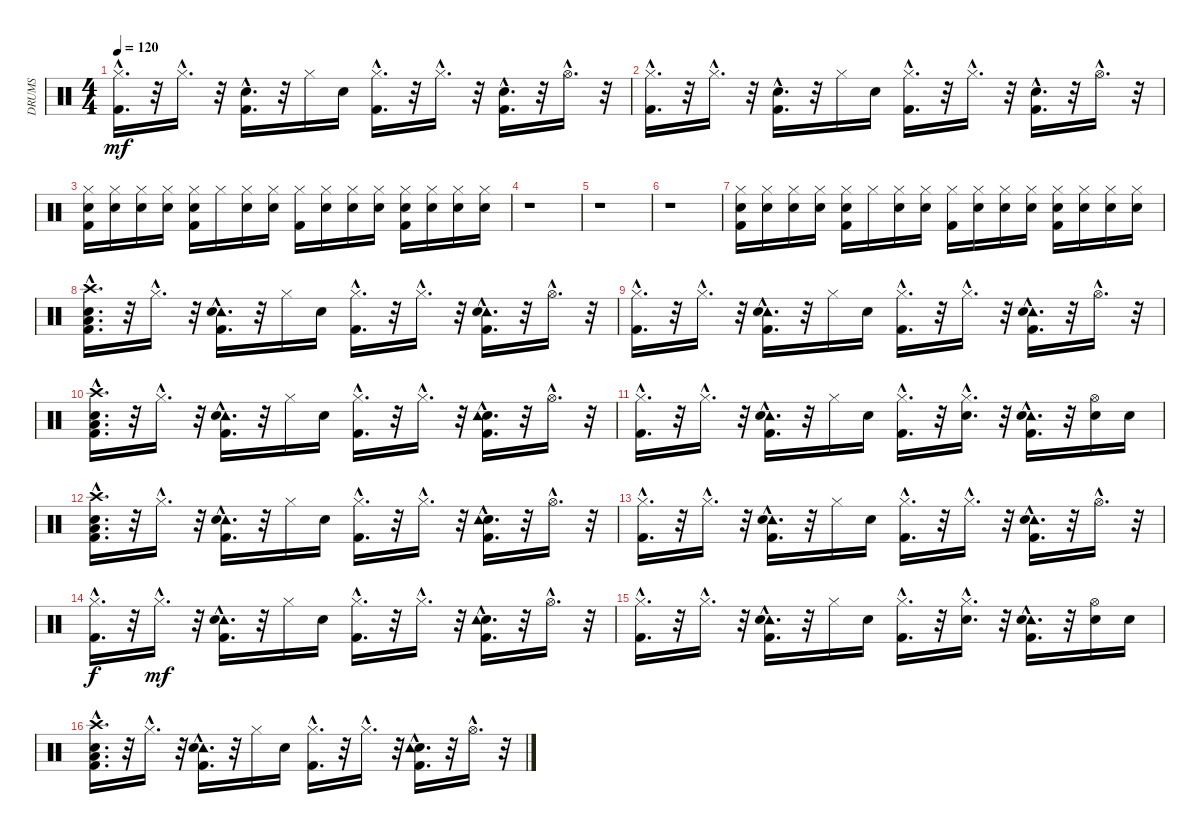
\track ("DRUMS" "DRUMS") {instrument percussion}
\staff {score}
\articulation defaults
\ts (4 4)
\tempo 120
\clef neutral
\ks c
("Hi-Hat (closed)"{hac} "Kick (hit) 2"{hac}).16{d dy mf} r.32 "Hi-Hat (closed)"{hac}.16{d} r.32 ("Electric Snare (hit)"{hac} "Kick (hit) 2"{hac}).16{d} r.32 "Hi-Hat (closed)".16 "Electric Snare (hit)".16 ("Hi-Hat (closed)"{hac} "Kick (hit) 2"{hac}).16{d} r.32 "Hi-Hat (closed)"{hac}.16{d} r.32 ("Electric Snare (hit)"{hac} "Kick (hit) 2"{hac}).16{d} r.32 "Hi-Hat (open)"{hac}.16{d} r.32 |
("Hi-Hat (closed)"{hac} "Kick (hit) 2"{hac}).16{d} r.32 "Hi-Hat (closed)"{hac}.16{d} r.32 ("Electric Snare (hit)"{hac} "Kick (hit) 2"{hac}).16{d} r.32 "Hi-Hat (closed)".16 "Electric Snare (hit)".16 ("Hi-Hat (closed)"{hac} "Kick (hit) 2"{hac}).16{d} r.32 "Hi-Hat (closed)"{hac}.16{d} r.32 ("Electric Snare (hit)"{hac} "Kick (hit) 2"{hac}).16{d} r.32 "Hi-Hat (open)"{hac}.16{d} r.32 |
("Kick (hit) 2" "Hi-Hat (closed)" "Electric Snare (hit)").16 ("Hi-Hat (closed)" "Electric Snare (hit)").16 ("Hi-Hat (closed)" "Electric Snare (hit)").16 ("Hi-Hat (closed)" "Electric Snare (hit)").16 ("Hi-Hat (closed)" "Kick (hit) 2" "Electric Snare (hit)").16 "Hi-Hat (closed)".16 ("Hi-Hat (closed)" "Electric Snare (hit)").16 ("Electric Snare (hit)" "Hi-Hat (closed)").16 ("Hi-Hat (closed)" "Kick (hit) 2").16 ("Hi-Hat (closed)" "Electric Snare (hit)").16 ("Hi-Hat (closed)" "Electric Snare (hit)").16 ("Hi-Hat (closed)" "Electric Snare (hit)").16 ("Hi-Hat (closed)" "Kick (hit) 2" "Electric Snare (hit)").16 ("Hi-Hat (closed)" "Electric Snare (hit)").16 ("Electric Snare (hit)" "Hi-Hat (closed)").16 ("Electric Snare (hit)" "Hi-Hat (closed)").16 |
r.1 |
r.1 |
r.1 |
("Hi-Hat (closed)" "Kick (hit) 2" "Electric Snare (hit)").16 ("Hi-Hat (closed)" "Electric Snare (hit)").16 ("Electric Snare (hit)" "Hi-Hat (closed)").16 ("Hi-Hat (closed)" "Electric Snare (hit)").16 ("Electric Snare (hit)" "Kick (hit) 2" "Hi-Hat (closed)").16 "Hi-Hat (closed)".16 ("Hi-Hat (closed)" "Electric Snare (hit)").16 ("Electric Snare (hit)" "Hi-Hat (closed)").16 ("Kick (hit) 2" "Hi-Hat (closed)").16 ("Electric Snare (hit)" "Hi-Hat (closed)").16 ("Electric Snare (hit)" "Hi-Hat (closed)").16 ("Electric Snare (hit)" "Hi-Hat (closed)").16 ("Electric Snare (hit)" "Kick (hit) 2" "Hi-Hat (closed)").16 ("Electric Snare (hit)" "Hi-Hat (closed)").16 ("Hi-Hat (closed)" "Electric Snare (hit)").16 ("Hi-Hat (closed)" "Electric Snare (hit)").16 |
("Snare (hit) 2"{hac} "Low Floor Tom (hit)"{hac} "Crash high (hit)"{hac} "Kick (hit) 2"{hac}).16{d} r.32 "Hi-Hat (closed)"{hac}.16{d} r.32 ("Tambourine (hit)"{hac} "Kick (hit) 2"{hac} "Electric Snare (hit)"{hac}).16{d} r.32 "Hi-Hat (closed)".16 "Electric Snare (hit)".16 ("Hi-Hat (closed)"{hac} "Kick (hit) 2"{hac}).16{d} r.32 "Hi-Hat (closed)"{hac}.16{d} r.32 ("Tambourine (hit)"{hac} "Kick (hit) 2"{hac} "Electric Snare (hit)"{hac}).16{d} r.32 "Hi-Hat (open)"{hac}.16{d} r.32 |
("Hi-Hat (closed)"{hac} "Kick (hit) 2"{hac}).16{d} r.32 "Hi-Hat (closed)"{hac}.16{d} r.32 ("Tambourine (hit)"{hac} "Electric Snare (hit)"{hac} "Kick (hit) 2"{hac}).16{d} r.32 "Hi-Hat (closed)".16 "Electric Snare (hit)".16 ("Hi-Hat (closed)"{hac} "Kick (hit) 2"{hac}).16{d} r.32 "Hi-Hat (closed)"{hac}.16{d} r.32 ("Tambourine (hit)"{hac} "Electric Snare (hit)"{hac} "Kick (hit) 2"{hac}).16{d} r.32 "Hi-Hat (open)"{hac}.16{d} r.32 |
("Kick (hit) 2"{hac} "Crash high (hit)"{hac} "Low Floor Tom (hit)"{hac} "Snare (hit) 2"{hac}).16{d} r.32 "Hi-Hat (closed)"{hac}.16{d} r.32 ("Tambourine (hit)"{hac} "Electric Snare (hit)"{hac} "Kick (hit) 2"{hac}).16{d} r.32 "Hi-Hat (closed)".16 "Electric Snare (hit)".16 ("Kick (hit) 2"{hac} "Hi-Hat (closed)"{hac}).16{d} r.32 "Hi-Hat (closed)"{hac}.16{d} r.32 ("Electric Snare (hit)"{hac} "Kick (hit) 2"{hac} "Tambourine (hit)"{hac}).16{d} r.32 "Hi-Hat (open)"{hac}.16{d} r.32 |
("Hi-Hat (closed)"{hac} "Kick (hit) 2"{hac}).16{d} r.32 "Hi-Hat (closed)"{hac}.16{d} r.32 ("Tambourine (hit)"{hac} "Electric Snare (hit)"{hac} "Kick (hit) 2"{hac}).16{d} r.32 "Hi-Hat (closed)".16 "Electric Snare (hit)".16 ("Hi-Hat (closed)"{hac} "Kick (hit) 2"{hac}).16{d} r.32 ("Hi-Hat (closed)"{hac} "Electric Snare (hit)"{hac}).16{d} r.32 ("Tambourine (hit)"{hac} "Electric Snare (hit)"{hac} "Kick (hit) 2"{hac}).16{d} r.32 ("Hi-Hat (open)" "Electric Snare (hit)").16 "Electric Snare (hit)".16 |
("Kick (hit) 2"{hac} "Crash high (hit)"{hac} "Low Floor Tom (hit)"{hac} "Snare (hit) 2"{hac}).16{d} r.32 "Hi-Hat (closed)"{hac}.16{d} r.32 ("Tambourine (hit)"{hac} "Electric Snare (hit)"{hac} "Kick (hit) 2"{hac}).16{d} r.32 "Hi-Hat (closed)".16 "Electric Snare (hit)".16 ("Kick (hit) 2"{hac} "Hi-Hat (closed)"{hac}).16{d} r.32 "Hi-Hat (closed)"{hac}.16{d} r.32 ("Electric Snare (hit)"{hac} "Kick (hit) 2"{hac} "Tambourine (hit)"{hac}).16{d} r.32 "Hi-Hat (open)"{hac}.16{d} r.32 |
("Kick (hit) 2"{hac} "Hi-Hat (closed)"{hac}).16{d} r.32 "Hi-Hat (closed)"{hac}.16{d} r.32 ("Tambourine (hit)"{hac} "Kick (hit) 2"{hac} "Electric Snare (hit)"{hac}).16{d} r.32 "Hi-Hat (closed)".16 "Electric Snare (hit)".16 ("Kick (hit) 2"{hac} "Hi-Hat (closed)"{hac}).16{d} r.32 "Hi-Hat (closed)"{hac}.16{d} r.32 ("Tambourine (hit)"{hac} "Kick (hit) 2"{hac} "Electric Snare (hit)"{hac}).16{d} r.32 "Hi-Hat (open)"{hac}.16{d} r.32 |
("Hi-Hat (closed)"{hac} "Kick (hit) 2"{hac}).16{d dy f} r.32 "Hi-Hat (closed)"{hac}.16{d dy mf} r.32 ("Tambourine (hit)"{hac} "Electric Snare (hit)"{hac} "Kick (hit) 2"{hac}).16{d} r.32 "Hi-Hat (closed)".16 "Electric Snare (hit)".16 ("Kick (hit) 2"{hac} "Hi-Hat (closed)"{hac}).16{d} r.32 "Hi-Hat (closed)"{hac}.16{d} r.32 ("Electric Snare (hit)"{hac} "Kick (hit) 2"{hac} "Tambourine (hit)"{hac}).16{d} r.32 "Hi-Hat (open)"{hac}.16{d} r.32 |
("Kick (hit) 2"{hac} "Hi-Hat (closed)"{hac}).16{d} r.32 "Hi-Hat (closed)"{hac}.16{d} r.32 ("Tambourine (hit)"{hac} "Kick (hit) 2"{hac} "Electric Snare (hit)"{hac}).16{d} r.32 "Hi-Hat (closed)".16 "Electric Snare (hit)".16 ("Kick (hit) 2"{hac} "Hi-Hat (closed)"{hac}).16{d} r.32 ("Hi-Hat (closed)"{hac} "Electric Snare (hit)"{hac}).16{d} r.32 ("Tambourine (hit)"{hac} "Kick (hit) 2"{hac} "Electric Snare (hit)"{hac}).16{d} r.32 ("Electric Snare (hit)" "Hi-Hat (open)").16 "Electric Snare (hit)".16 |
("Kick (hit) 2"{hac} "Crash high (hit)"{hac} "Low Floor Tom (hit)"{hac} "Snare (hit) 2"{hac}).16{d} r.32 "Hi-Hat (closed)"{hac}.16{d} r.32 ("Tambourine (hit)"{hac} "Electric Snare (hit)"{hac} "Kick (hit) 2"{hac}).16{d} r.32 "Hi-Hat (closed)".16 "Electric Snare (hit)".16 ("Kick (hit) 2"{hac} "Hi-Hat (closed)"{hac}).16{d} r.32 "Hi-Hat (closed)"{hac}.16{d} r.32 ("Electric Snare (hit)"{hac} "Kick (hit) 2"{hac} "Tambourine (hit)"{hac}).16{d} r.32 "Hi-Hat (open)"{hac}.16{d} r.32
